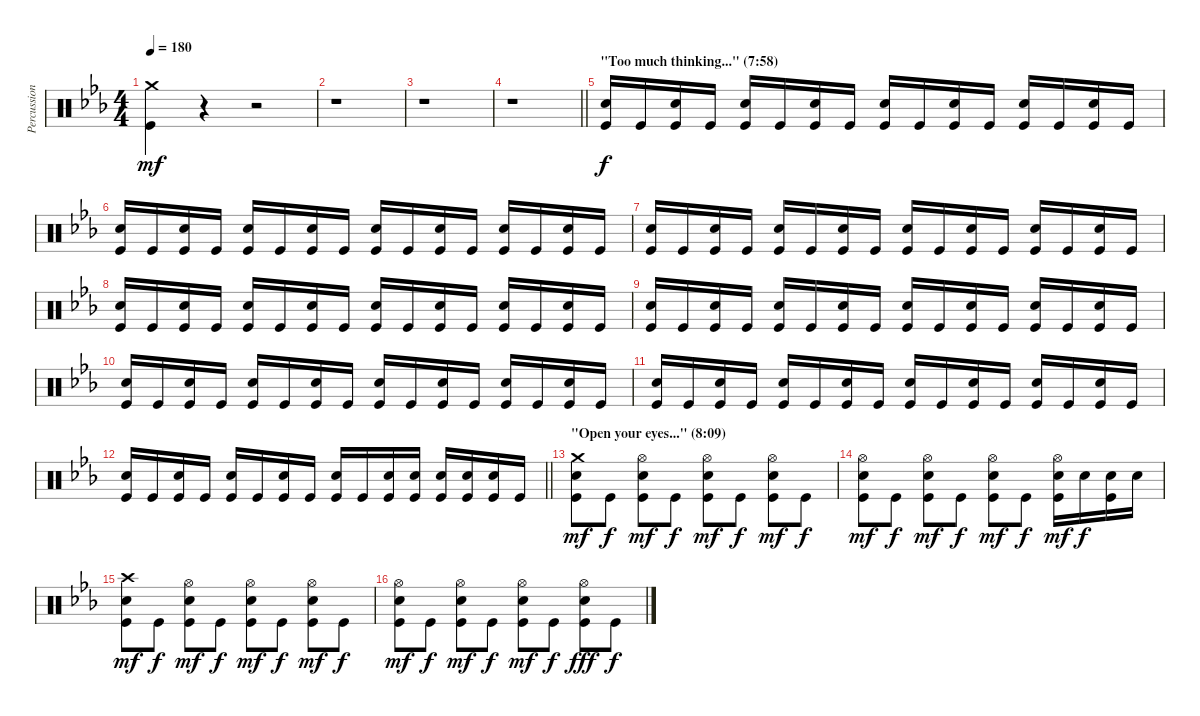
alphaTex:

\track ("Percussion" "Percussion") {instrument percussion}
\staff {score}
\articulation defaults
\ts (4 4)
\tempo 180
\clef neutral
\ks cminor
("Crash medium (hit)" "Kick (hit)").4{dy mf} r.4 r.2 |
r.1 |
r.1 |
\barLineRight lightlight
r.1 |
\section ("" "\"Too much thinking...\" (7:58)")
("Snare (hit) 2" "Kick (hit)").16{dy f} "Kick (hit)".16 ("Snare (hit) 2" "Kick (hit)").16 "Kick (hit)".16 ("Snare (hit) 2" "Kick (hit)").16 "Kick (hit)".16 ("Snare (hit) 2" "Kick (hit)").16 "Kick (hit)".16 ("Snare (hit) 2" "Kick (hit)").16 "Kick (hit)".16 ("Snare (hit) 2" "Kick (hit)").16 "Kick (hit)".16 ("Snare (hit) 2" "Kick (hit)").16 "Kick (hit)".16 ("Snare (hit) 2" "Kick (hit)").16 "Kick (hit)".16 |
("Snare (hit) 2" "Kick (hit)").16 "Kick (hit)".16 ("Snare (hit) 2" "Kick (hit)").16 "Kick (hit)".16 ("Snare (hit) 2" "Kick (hit)").16 "Kick (hit)".16 ("Snare (hit) 2" "Kick (hit)").16 "Kick (hit)".16 ("Snare (hit) 2" "Kick (hit)").16 "Kick (hit)".16 ("Snare (hit) 2" "Kick (hit)").16 "Kick (hit)".16 ("Snare (hit) 2" "Kick (hit)").16 "Kick (hit)".16 ("Snare (hit) 2" "Kick (hit)").16 "Kick (hit)".16 |
("Snare (hit) 2" "Kick (hit)").16 "Kick (hit)".16 ("Snare (hit) 2" "Kick (hit)").16 "Kick (hit)".16 ("Snare (hit) 2" "Kick (hit)").16 "Kick (hit)".16 ("Snare (hit) 2" "Kick (hit)").16 "Kick (hit)".16 ("Snare (hit) 2" "Kick (hit)").16 "Kick (hit)".16 ("Snare (hit) 2" "Kick (hit)").16 "Kick (hit)".16 ("Snare (hit) 2" "Kick (hit)").16 "Kick (hit)".16 ("Snare (hit) 2" "Kick (hit)").16 "Kick (hit)".16 |
("Snare (hit) 2" "Kick (hit)").16 "Kick (hit)".16 ("Snare (hit) 2" "Kick (hit)").16 "Kick (hit)".16 ("Snare (hit) 2" "Kick (hit)").16 "Kick (hit)".16 ("Snare (hit) 2" "Kick (hit)").16 "Kick (hit)".16 ("Snare (hit) 2" "Kick (hit)").16 "Kick (hit)".16 ("Snare (hit) 2" "Kick (hit)").16 "Kick (hit)".16 ("Snare (hit) 2" "Kick (hit)").16 "Kick (hit)".16 ("Snare (hit) 2" "Kick (hit)").16 "Kick (hit)".16 |
("Snare (hit) 2" "Kick (hit)").16 "Kick (hit)".16 ("Snare (hit) 2" "Kick (hit)").16 "Kick (hit)".16 ("Snare (hit) 2" "Kick (hit)").16 "Kick (hit)".16 ("Snare (hit) 2" "Kick (hit)").16 "Kick (hit)".16 ("Snare (hit) 2" "Kick (hit)").16 "Kick (hit)".16 ("Snare (hit) 2" "Kick (hit)").16 "Kick (hit)".16 ("Snare (hit) 2" "Kick (hit)").16 "Kick (hit)".16 ("Snare (hit) 2" "Kick (hit)").16 "Kick (hit)".16 |
("Snare (hit) 2" "Kick (hit)").16 "Kick (hit)".16 ("Snare (hit) 2" "Kick (hit)").16 "Kick (hit)".16 ("Snare (hit) 2" "Kick (hit)").16 "Kick (hit)".16 ("Snare (hit) 2" "Kick (hit)").16 "Kick (hit)".16 ("Snare (hit) 2" "Kick (hit)").16 "Kick (hit)".16 ("Snare (hit) 2" "Kick (hit)").16 "Kick (hit)".16 ("Snare (hit) 2" "Kick (hit)").16 "Kick (hit)".16 ("Snare (hit) 2" "Kick (hit)").16 "Kick (hit)".16 |
("Snare (hit) 2" "Kick (hit)").16 "Kick (hit)".16 ("Snare (hit) 2" "Kick (hit)").16 "Kick (hit)".16 ("Snare (hit) 2" "Kick (hit)").16 "Kick (hit)".16 ("Snare (hit) 2" "Kick (hit)").16 "Kick (hit)".16 ("Snare (hit) 2" "Kick (hit)").16 "Kick (hit)".16 ("Snare (hit) 2" "Kick (hit)").16 "Kick (hit)".16 ("Snare (hit) 2" "Kick (hit)").16 "Kick (hit)".16 ("Snare (hit) 2" "Kick (hit)").16 "Kick (hit)".16 |
\barLineRight lightlight
("Snare (hit) 2" "Kick (hit)").16 "Kick (hit)".16 ("Snare (hit) 2" "Kick (hit)").16 "Kick (hit)".16 ("Snare (hit) 2" "Kick (hit)").16 "Kick (hit)".16 ("Snare (hit) 2" "Kick (hit)").16 "Kick (hit)".16 ("Snare (hit) 2" "Kick (hit)").16 "Kick (hit)".16 ("Snare (hit) 2" "Kick (hit)").16 ("Snare (hit) 2" "Kick (hit)").16 ("Snare (hit) 2" "Kick (hit)").16 ("Snare (hit) 2" "Kick (hit)").16 ("Snare (hit) 2" "Kick (hit)").16 "Kick (hit)".16 |
\section ("" "\"Open your eyes...\" (8:09)")
("Crash medium (hit)" "Snare (hit) 2" "Kick (hit)").8{dy mf} "Kick (hit)".8{dy f} ("Hi-Hat (open)" "Snare (hit) 2" "Kick (hit)").8{dy mf} "Kick (hit)".8{dy f} ("Hi-Hat (open)" "Snare (hit) 2" "Kick (hit)").8{dy mf} "Kick (hit)".8{dy f} ("Hi-Hat (open)" "Snare (hit) 2" "Kick (hit)").8{dy mf} "Kick (hit)".8{dy f} |
("Hi-Hat (open)" "Snare (hit) 2" "Kick (hit)").8{dy mf} "Kick (hit)".8{dy f} ("Hi-Hat (open)" "Snare (hit) 2" "Kick (hit)").8{dy mf} "Kick (hit)".8{dy f} ("Hi-Hat (open)" "Snare (hit) 2" "Kick (hit)").8{dy mf} "Kick (hit)".8{dy f} ("Hi-Hat (open)" "Snare (hit) 2" "Kick (hit)").16{dy mf} "Snare (hit) 2".16{dy f} ("Snare (hit) 2" "Kick (hit)").16 "Snare (hit) 2".16 |
("Crash high (hit)" "Snare (hit) 2" "Kick (hit)").8{dy mf} "Kick (hit)".8{dy f} ("Hi-Hat (open)" "Snare (hit) 2" "Kick (hit)").8{dy mf} "Kick (hit)".8{dy f} ("Hi-Hat (open)" "Snare (hit) 2" "Kick (hit)").8{dy mf} "Kick (hit)".8{dy f} ("Hi-Hat (open)" "Snare (hit) 2" "Kick (hit)").8{dy mf} "Kick (hit)".8{dy f} |
("Hi-Hat (open)" "Snare (hit) 2" "Kick (hit)").8{dy mf} "Kick (hit)".8{dy f} ("Hi-Hat (open)" "Snare (hit) 2" "Kick (hit)").8{dy mf} "Kick (hit)".8{dy f} ("Hi-Hat (open)" "Snare (hit) 2" "Kick (hit)").8{dy mf} "Kick (hit)".8{dy f} ("Hi-Hat (open)" "Snare (hit) 2" "Kick (hit)").8{dy fff} "Kick (hit)".8{dy f}
